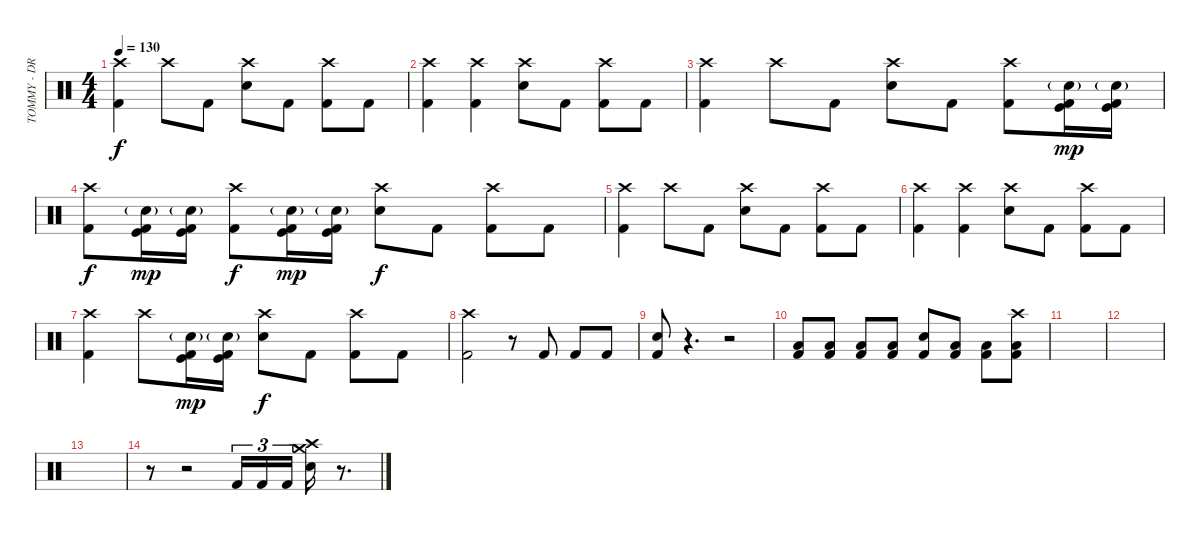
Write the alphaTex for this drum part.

\track ("TOMMY - DRUMS" "TOMMY - DR") {instrument percussion}
\staff {score}
\articulation defaults
\ts (4 4)
\tempo 130
\clef neutral
\ks c
("Crash high (hit)" "Kick (hit) 2").4{dy f} "Crash high (hit)".8 "Kick (hit) 2".8 ("Crash high (hit)" "Electric Snare (hit)").8 "Kick (hit) 2".8 ("Crash high (hit)" "Kick (hit) 2").8 "Kick (hit) 2".8 |
("Crash high (hit)" "Kick (hit) 2").4 ("Crash high (hit)" "Kick (hit) 2").4 ("Crash high (hit)" "Electric Snare (hit)").8 "Kick (hit) 2".8 ("Crash high (hit)" "Kick (hit) 2").8 "Kick (hit) 2".8 |
("Crash high (hit)" "Kick (hit) 2").4 "Crash high (hit)".8 "Kick (hit) 2".8 ("Crash high (hit)" "Electric Snare (hit)").8 "Kick (hit) 2".8 ("Crash high (hit)" "Kick (hit) 2").8 ("Electric Snare (hit)"{g} "Kick (hit)" "Kick (hit) 2").16{dy mp} ("Electric Snare (hit)"{g} "Kick (hit)" "Kick (hit) 2").16 |
("Crash high (hit)" "Kick (hit) 2").8{dy f} ("Electric Snare (hit)"{g} "Kick (hit)" "Kick (hit) 2").16{dy mp} ("Electric Snare (hit)"{g} "Kick (hit)" "Kick (hit) 2").16 ("Crash high (hit)" "Kick (hit) 2").8{dy f} ("Electric Snare (hit)"{g} "Kick (hit)" "Kick (hit) 2").16{dy mp} ("Electric Snare (hit)"{g} "Kick (hit)" "Kick (hit) 2").16 ("Crash high (hit)" "Electric Snare (hit)").8{dy f} "Kick (hit) 2".8 ("Crash high (hit)" "Kick (hit) 2").8 "Kick (hit) 2".8 |
("Crash high (hit)" "Kick (hit) 2").4 "Crash high (hit)".8 "Kick (hit) 2".8 ("Crash high (hit)" "Electric Snare (hit)").8 "Kick (hit) 2".8 ("Crash high (hit)" "Kick (hit) 2").8 "Kick (hit) 2".8 |
("Crash high (hit)" "Kick (hit) 2").4 ("Crash high (hit)" "Kick (hit) 2").4 ("Crash high (hit)" "Electric Snare (hit)").8 "Kick (hit) 2".8 ("Crash high (hit)" "Kick (hit) 2").8 "Kick (hit) 2".8 |
("Crash high (hit)" "Kick (hit) 2").4 "Crash high (hit)".8 ("Electric Snare (hit)"{g} "Kick (hit)" "Kick (hit) 2").16{dy mp} ("Electric Snare (hit)"{g} "Kick (hit)" "Kick (hit) 2").16 ("Crash high (hit)" "Electric Snare (hit)").8{dy f} "Kick (hit) 2".8 ("Crash high (hit)" "Kick (hit) 2").8 "Kick (hit) 2".8 |
("Crash high (hit)" "Kick (hit) 2").2 r.8 "Kick (hit) 2".8 "Kick (hit) 2".8 "Kick (hit) 2".8 |
("Electric Snare (hit)" "Kick (hit) 2").8 r.4{d} r.2 |
("Low Floor Tom (hit)" "Kick (hit) 2").8 ("Low Floor Tom (hit)" "Kick (hit) 2").8 ("Low Floor Tom (hit)" "Kick (hit) 2").8 ("Low Floor Tom (hit)" "Kick (hit) 2").8 ("Electric Snare (hit)" "Kick (hit) 2").8 ("Low Floor Tom (hit)" "Kick (hit) 2").8 ("Low Floor Tom (hit)" "Kick (hit) 2").8 ("Crash high (hit)" "Low Floor Tom (hit)" "Kick (hit) 2").8 |
|
|
|
r.8 r.2 "Kick (hit) 2".16{tu (3 2)} "Kick (hit) 2".16{tu (3 2)} "Kick (hit) 2".16{tu (3 2)} ("Crash medium (hit)" "Crash high (hit)" "Electric Snare (hit)").16 r.8{d}
